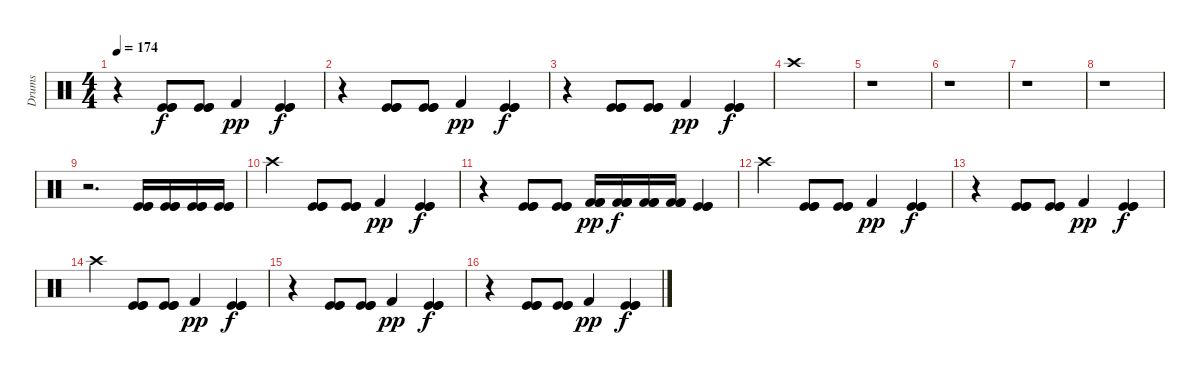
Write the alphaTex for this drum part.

\track ("Drums" "Drums") {instrument percussion}
\staff {score}
\articulation defaults
\ts (4 4)
\tempo 174
\clef neutral
\ks c
r.4{dy f} ("Kick (hit)" "Kick (hit)" "Kick (hit)").8 ("Kick (hit)" "Kick (hit)" "Kick (hit)").8 "Kick (hit) 2".4{dy pp} ("Kick (hit)" "Kick (hit)" "Kick (hit)").4{dy f} |
r.4 ("Kick (hit)" "Kick (hit)" "Kick (hit)").8 ("Kick (hit)" "Kick (hit)" "Kick (hit)").8 "Kick (hit) 2".4{dy pp} ("Kick (hit)" "Kick (hit)" "Kick (hit)").4{dy f} |
r.4 ("Kick (hit)" "Kick (hit)" "Kick (hit)").8 ("Kick (hit)" "Kick (hit)" "Kick (hit)").8 "Kick (hit) 2".4{dy pp} ("Kick (hit)" "Kick (hit)" "Kick (hit)").4{dy f} |
"Crash high (hit)".1 |
r.1 |
r.1 |
r.1 |
r.1 |
r.2{d} ("Kick (hit)" "Kick (hit)" "Kick (hit)").16 ("Kick (hit)" "Kick (hit)" "Kick (hit)").16 ("Kick (hit)" "Kick (hit)" "Kick (hit)").16 ("Kick (hit)" "Kick (hit)" "Kick (hit)").16 |
"Crash high (hit)".4 ("Kick (hit)" "Kick (hit)" "Kick (hit)").8 ("Kick (hit)" "Kick (hit)" "Kick (hit)").8 "Kick (hit) 2".4{dy pp} ("Kick (hit)" "Kick (hit)" "Kick (hit)").4{dy f} |
r.4 ("Kick (hit)" "Kick (hit)" "Kick (hit)").8 ("Kick (hit)" "Kick (hit)" "Kick (hit)").8 ("Kick (hit) 2" "Kick (hit) 2" "Kick (hit) 2").16{dy pp} ("Kick (hit) 2" "Kick (hit) 2" "Kick (hit) 2").16{dy f} ("Kick (hit) 2" "Kick (hit) 2" "Kick (hit) 2").16 ("Kick (hit) 2" "Kick (hit) 2" "Kick (hit) 2").16 ("Kick (hit)" "Kick (hit)" "Kick (hit)").4 |
"Crash high (hit)".4 ("Kick (hit)" "Kick (hit)" "Kick (hit)").8 ("Kick (hit)" "Kick (hit)" "Kick (hit)").8 "Kick (hit) 2".4{dy pp} ("Kick (hit)" "Kick (hit)" "Kick (hit)").4{dy f} |
r.4 ("Kick (hit)" "Kick (hit)" "Kick (hit)").8 ("Kick (hit)" "Kick (hit)" "Kick (hit)").8 "Kick (hit) 2".4{dy pp} ("Kick (hit)" "Kick (hit)" "Kick (hit)").4{dy f} |
"Crash high (hit)".4 ("Kick (hit)" "Kick (hit)" "Kick (hit)").8 ("Kick (hit)" "Kick (hit)" "Kick (hit)").8 "Kick (hit) 2".4{dy pp} ("Kick (hit)" "Kick (hit)" "Kick (hit)").4{dy f} |
r.4 ("Kick (hit)" "Kick (hit)" "Kick (hit)").8 ("Kick (hit)" "Kick (hit)" "Kick (hit)").8 "Kick (hit) 2".4{dy pp} ("Kick (hit)" "Kick (hit)" "Kick (hit)").4{dy f} |
r.4 ("Kick (hit)" "Kick (hit)" "Kick (hit)").8 ("Kick (hit)" "Kick (hit)" "Kick (hit)").8 "Kick (hit) 2".4{dy pp} ("Kick (hit)" "Kick (hit)" "Kick (hit)").4{dy f}
